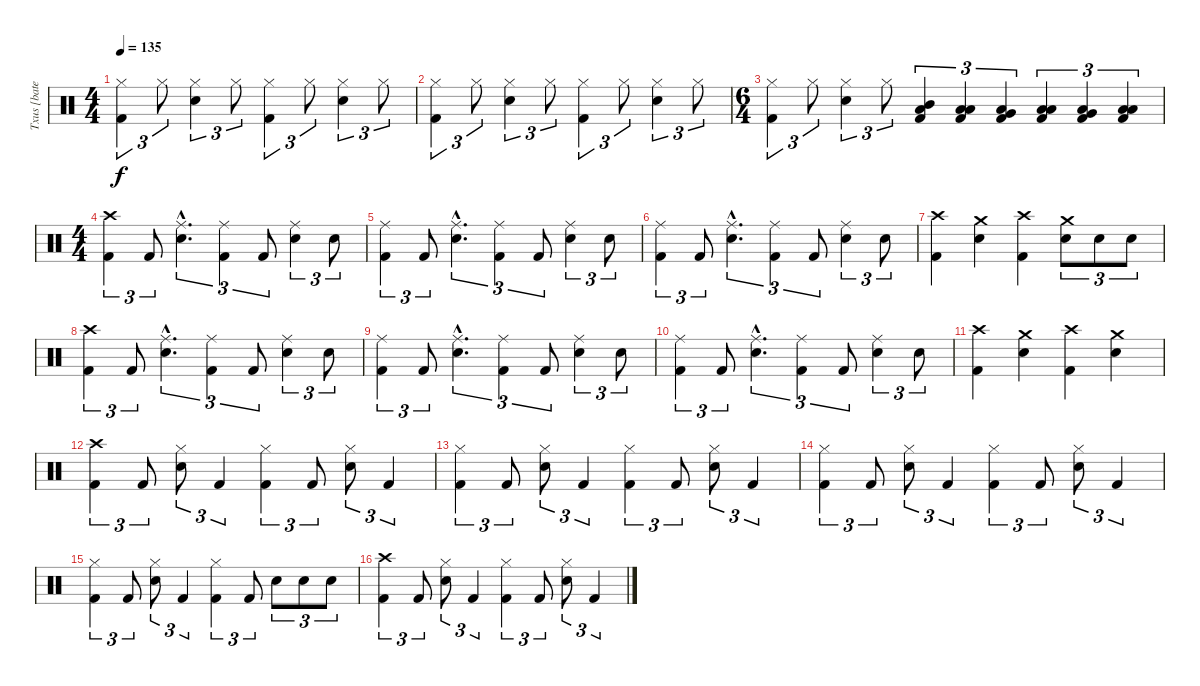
\track ("Txus [bateria]" "Txus [bate") {instrument percussion}
\staff {score}
\articulation defaults
\ts (4 4)
\tempo 135
\clef neutral
\ks c
("Hi-Hat (closed)" "Kick (hit) 2").4{tu (3 2) dy f} "Hi-Hat (closed)".8{tu (3 2)} ("Hi-Hat (closed)" "Snare (hit) 2").4{tu (3 2)} "Hi-Hat (closed)".8{tu (3 2)} ("Hi-Hat (closed)" "Kick (hit) 2").4{tu (3 2)} "Hi-Hat (closed)".8{tu (3 2)} ("Hi-Hat (closed)" "Snare (hit) 2").4{tu (3 2)} "Hi-Hat (closed)".8{tu (3 2)} |
("Hi-Hat (closed)" "Kick (hit) 2").4{tu (3 2)} "Hi-Hat (closed)".8{tu (3 2)} ("Hi-Hat (closed)" "Snare (hit) 2").4{tu (3 2)} "Hi-Hat (closed)".8{tu (3 2)} ("Hi-Hat (closed)" "Kick (hit) 2").4{tu (3 2)} "Hi-Hat (closed)".8{tu (3 2)} ("Hi-Hat (closed)" "Snare (hit) 2").4{tu (3 2)} "Hi-Hat (closed)".8{tu (3 2)} |
\ts (6 4)
("Hi-Hat (closed)" "Kick (hit) 2").4{tu (3 2)} "Hi-Hat (closed)".8{tu (3 2)} ("Hi-Hat (closed)" "Snare (hit) 2").4{tu (3 2)} "Hi-Hat (closed)".8{tu (3 2)} ("Mid Tom (hit)" "Low Floor Tom (hit)" "Kick (hit) 2").4{tu (3 2)} ("Low Tom (hit)" "Low Floor Tom (hit)" "Kick (hit) 2").4{tu (3 2)} ("Very Low Tom (hit)" "Low Floor Tom (hit)" "Kick (hit) 2").4{tu (3 2)} ("Low Tom (hit)" "Low Floor Tom (hit)" "Kick (hit) 2").4{tu (3 2)} ("Very Low Tom (hit)" "Low Floor Tom (hit)" "Kick (hit) 2").4{tu (3 2)} ("Low Floor Tom (hit)" "Low Floor Tom (hit)" "Kick (hit) 2").4{tu (3 2)} |
\ts (4 4)
("Crash high (hit)" "Kick (hit) 2").4{tu (3 2)} "Kick (hit) 2".8{tu (3 2)} ("Ride (middle)"{hac} "Snare (hit) 2"{hac}).4{d tu (3 2)} ("Ride (middle)" "Kick (hit) 2").4{tu (3 2)} "Kick (hit) 2".8{tu (3 2)} ("Ride (middle)" "Snare (hit) 2").4{tu (3 2)} "Snare (hit) 2".8{tu (3 2)} |
("Ride (middle)" "Kick (hit) 2").4{tu (3 2)} "Kick (hit) 2".8{tu (3 2)} ("Ride (middle)"{hac} "Snare (hit) 2"{hac}).4{d tu (3 2)} ("Ride (middle)" "Kick (hit) 2").4{tu (3 2)} "Kick (hit) 2".8{tu (3 2)} ("Ride (middle)" "Snare (hit) 2").4{tu (3 2)} "Snare (hit) 2".8{tu (3 2)} |
("Ride (middle)" "Kick (hit) 2").4{tu (3 2)} "Kick (hit) 2".8{tu (3 2)} ("Ride (middle)"{hac} "Snare (hit) 2"{hac}).4{d tu (3 2)} ("Ride (middle)" "Kick (hit) 2").4{tu (3 2)} "Kick (hit) 2".8{tu (3 2)} ("Ride (middle)" "Snare (hit) 2").4{tu (3 2)} "Snare (hit) 2".8{tu (3 2)} |
("Crash high (hit)" "Kick (hit) 2").4 ("Crash medium (hit)" "Snare (hit) 2").4 ("Crash high (hit)" "Kick (hit) 2").4 ("Crash medium (hit)" "Snare (hit) 2").8{tu (3 2)} "Snare (hit) 2".8{tu (3 2)} "Snare (hit) 2".8{tu (3 2)} |
("Crash high (hit)" "Kick (hit) 2").4{tu (3 2)} "Kick (hit) 2".8{tu (3 2)} ("Ride (middle)"{hac} "Snare (hit) 2"{hac}).4{d tu (3 2)} ("Ride (middle)" "Kick (hit) 2").4{tu (3 2)} "Kick (hit) 2".8{tu (3 2)} ("Ride (middle)" "Snare (hit) 2").4{tu (3 2)} "Snare (hit) 2".8{tu (3 2)} |
("Ride (middle)" "Kick (hit) 2").4{tu (3 2)} "Kick (hit) 2".8{tu (3 2)} ("Ride (middle)"{hac} "Snare (hit) 2"{hac}).4{d tu (3 2)} ("Ride (middle)" "Kick (hit) 2").4{tu (3 2)} "Kick (hit) 2".8{tu (3 2)} ("Ride (middle)" "Snare (hit) 2").4{tu (3 2)} "Snare (hit) 2".8{tu (3 2)} |
("Ride (middle)" "Kick (hit) 2").4{tu (3 2)} "Kick (hit) 2".8{tu (3 2)} ("Ride (middle)"{hac} "Snare (hit) 2"{hac}).4{d tu (3 2)} ("Ride (middle)" "Kick (hit) 2").4{tu (3 2)} "Kick (hit) 2".8{tu (3 2)} ("Ride (middle)" "Snare (hit) 2").4{tu (3 2)} "Snare (hit) 2".8{tu (3 2)} |
("Crash high (hit)" "Kick (hit) 2").4 ("Crash medium (hit)" "Snare (hit) 2").4 ("Crash high (hit)" "Kick (hit) 2").4 ("Crash medium (hit)" "Snare (hit) 2").4 |
("Crash high (hit)" "Kick (hit) 2").4{tu (3 2)} "Kick (hit) 2".8{tu (3 2)} ("Hi-Hat (closed)" "Snare (hit) 2").8{tu (3 2)} "Kick (hit) 2".4{tu (3 2)} ("Hi-Hat (closed)" "Kick (hit) 2").4{tu (3 2)} "Kick (hit) 2".8{tu (3 2)} ("Hi-Hat (closed)" "Snare (hit) 2").8{tu (3 2)} "Kick (hit) 2".4{tu (3 2)} |
("Hi-Hat (closed)" "Kick (hit) 2").4{tu (3 2)} "Kick (hit) 2".8{tu (3 2)} ("Hi-Hat (closed)" "Snare (hit) 2").8{tu (3 2)} "Kick (hit) 2".4{tu (3 2)} ("Hi-Hat (closed)" "Kick (hit) 2").4{tu (3 2)} "Kick (hit) 2".8{tu (3 2)} ("Hi-Hat (closed)" "Snare (hit) 2").8{tu (3 2)} "Kick (hit) 2".4{tu (3 2)} |
("Hi-Hat (closed)" "Kick (hit) 2").4{tu (3 2)} "Kick (hit) 2".8{tu (3 2)} ("Hi-Hat (closed)" "Snare (hit) 2").8{tu (3 2)} "Kick (hit) 2".4{tu (3 2)} ("Hi-Hat (closed)" "Kick (hit) 2").4{tu (3 2)} "Kick (hit) 2".8{tu (3 2)} ("Hi-Hat (closed)" "Snare (hit) 2").8{tu (3 2)} "Kick (hit) 2".4{tu (3 2)} |
("Hi-Hat (closed)" "Kick (hit) 2").4{tu (3 2)} "Kick (hit) 2".8{tu (3 2)} ("Hi-Hat (closed)" "Snare (hit) 2").8{tu (3 2)} "Kick (hit) 2".4{tu (3 2)} ("Hi-Hat (closed)" "Kick (hit) 2").4{tu (3 2)} "Kick (hit) 2".8{tu (3 2)} "Snare (hit) 2".8{tu (3 2)} "Snare (hit) 2".8{tu (3 2)} "Snare (hit) 2".8{tu (3 2)} |
("Crash high (hit)" "Kick (hit) 2").4{tu (3 2)} "Kick (hit) 2".8{tu (3 2)} ("Hi-Hat (closed)" "Snare (hit) 2").8{tu (3 2)} "Kick (hit) 2".4{tu (3 2)} ("Hi-Hat (closed)" "Kick (hit) 2").4{tu (3 2)} "Kick (hit) 2".8{tu (3 2)} ("Hi-Hat (closed)" "Snare (hit) 2").8{tu (3 2)} "Kick (hit) 2".4{tu (3 2)}
